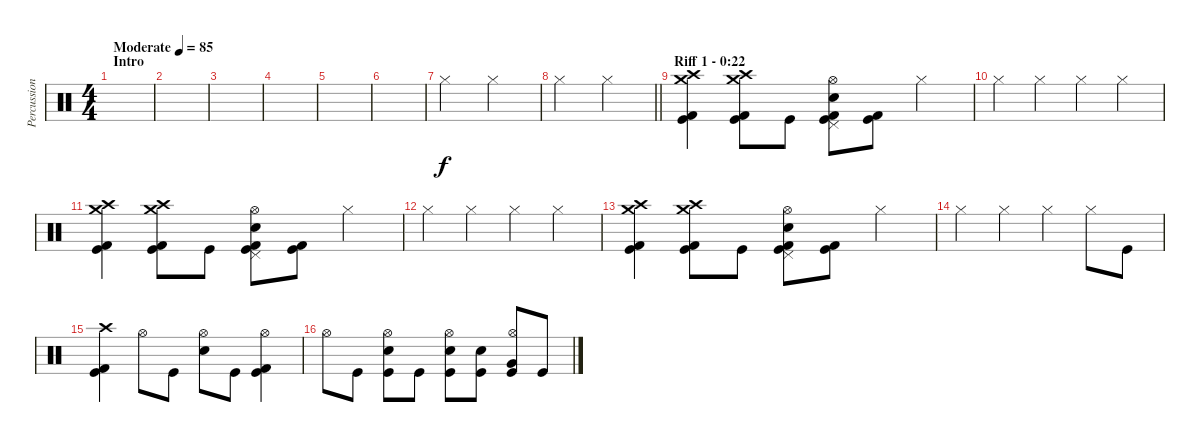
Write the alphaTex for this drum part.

\track ("Percussion" "Percussion") {instrument percussion}
\staff {score}
\articulation defaults
\ts (4 4)
\section ("" "Intro")
\tempo (85 "Moderate")
\clef neutral
\ks c
|
|
|
|
|
|
"Hi-Hat (closed)".2 "Hi-Hat (closed)".2 |
\barLineRight lightlight "Hi-Hat (closed)".2 "Hi-Hat (closed)".2
|
\section ("" "Riff 1 - 0:22")
("Kick (hit)" "Kick (hit) 2" "Crash high (hit)" "Crash medium (hit)").4 ("Kick (hit)" "Kick (hit) 2" "Crash high (hit)" "Crash medium (hit)").8 "Kick (hit)".8 ("Kick (hit)" "Kick (hit) 2" "Snare (hit) 2" "Pedal Hi-Hat (hit)" "Hi-Hat (open)").8 ("Kick (hit)" "Kick (hit) 2").8 "Hi-Hat (closed)".4 |
"Hi-Hat (closed)".4 "Hi-Hat (closed)".4 "Hi-Hat (closed)".4 "Hi-Hat (closed)".4 |
("Kick (hit)" "Kick (hit) 2" "Crash high (hit)" "Crash medium (hit)").4 ("Kick (hit)" "Kick (hit) 2" "Crash high (hit)" "Crash medium (hit)").8 "Kick (hit)".8 ("Kick (hit)" "Kick (hit) 2" "Snare (hit) 2" "Pedal Hi-Hat (hit)" "Hi-Hat (open)").8 ("Kick (hit)" "Kick (hit) 2").8 "Hi-Hat (closed)".4 |
"Hi-Hat (closed)".4 "Hi-Hat (closed)".4 "Hi-Hat (closed)".4 "Hi-Hat (closed)".4 |
("Kick (hit)" "Kick (hit) 2" "Crash high (hit)" "Crash medium (hit)").4 ("Kick (hit)" "Kick (hit) 2" "Crash high (hit)" "Crash medium (hit)").8 "Kick (hit)".8 ("Kick (hit)" "Kick (hit) 2" "Snare (hit) 2" "Pedal Hi-Hat (hit)" "Hi-Hat (open)").8 ("Kick (hit)" "Kick (hit) 2").8 "Hi-Hat (closed)".4 |
"Hi-Hat (closed)".4 "Hi-Hat (closed)".4 "Hi-Hat (closed)".4 "Hi-Hat (closed)".8 "Kick (hit)".8 |
("Kick (hit)" "Kick (hit) 2" "Crash high (hit)").4 "Hi-Hat (open)".8 "Kick (hit)".8 ("Snare (hit) 2" "Hi-Hat (open)").8 "Kick (hit)".8 ("Kick (hit)" "Kick (hit) 2" "Hi-Hat (open)").4 |
"Hi-Hat (open)".8 "Kick (hit)".8 ("Kick (hit)" "Snare (hit) 2" "Hi-Hat (open)").8 "Kick (hit)".8 ("Kick (hit)" "Snare (hit) 2" "Hi-Hat (open)").8 ("Kick (hit)" "Snare (hit) 2").8 ("Kick (hit)" "Very Low Tom (hit)" "Hi-Hat (open)").8 "Kick (hit)".8
